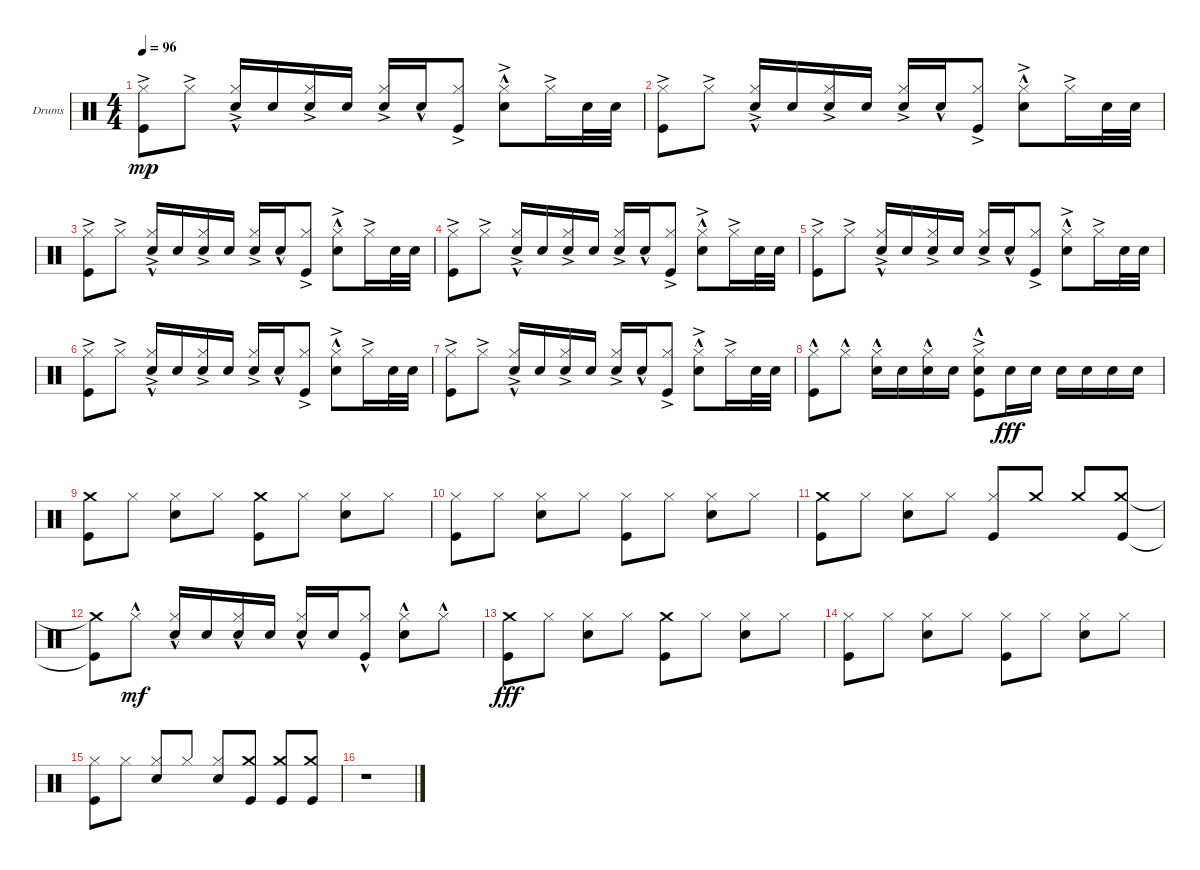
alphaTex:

\defaultSystemsLayout 4
\bracketExtendMode groupsimilarinstruments
\firstSystemTrackNameOrientation horizontal
\otherSystemsTrackNameOrientation horizontal
\track ("Drumkit" "Drums") {instrument percussion}
\staff {score}
\articulation defaults
\ts (4 4)
\tempo 96
\clef neutral
\ks c
("Hi-Hat (closed)"{ac} "Kick (hit)"{ac}).8{dy mp} "Hi-Hat (closed)"{ac}.8 ("Hi-Hat (closed)"{ac} "Snare (hit) 2"{hac}).16 "Snare (hit) 2".16 ("Snare (hit) 2" "Hi-Hat (closed)"{ac}).16 "Snare (hit) 2".16 ("Hi-Hat (closed)"{ac} "Snare (hit) 2").16{beam invert} "Snare (hit) 2"{hac}.16 ("Hi-Hat (closed)"{ac} "Kick (hit)").8 ("Snare (hit) 2"{hac} "Hi-Hat (closed)"{ac}).8 "Hi-Hat (closed)"{ac}.16 "Snare (hit) 2".32 "Snare (hit) 2".32 |
("Hi-Hat (closed)"{ac} "Kick (hit)"{ac}).8 "Hi-Hat (closed)"{ac}.8 ("Hi-Hat (closed)"{ac} "Snare (hit) 2"{hac}).16 "Snare (hit) 2".16 ("Snare (hit) 2" "Hi-Hat (closed)"{ac}).16 "Snare (hit) 2".16 ("Hi-Hat (closed)"{ac} "Snare (hit) 2").16{beam invert} "Snare (hit) 2"{hac}.16 ("Hi-Hat (closed)"{ac} "Kick (hit)").8 ("Snare (hit) 2"{hac} "Hi-Hat (closed)"{ac}).8 "Hi-Hat (closed)"{ac}.16 "Snare (hit) 2".32 "Snare (hit) 2".32 |
("Hi-Hat (closed)"{ac} "Kick (hit)"{ac}).8 "Hi-Hat (closed)"{ac}.8 ("Hi-Hat (closed)"{ac} "Snare (hit) 2"{hac}).16 "Snare (hit) 2".16 ("Snare (hit) 2" "Hi-Hat (closed)"{ac}).16 "Snare (hit) 2".16 ("Hi-Hat (closed)"{ac} "Snare (hit) 2").16{beam invert} "Snare (hit) 2"{hac}.16 ("Hi-Hat (closed)"{ac} "Kick (hit)").8 ("Snare (hit) 2"{hac} "Hi-Hat (closed)"{ac}).8 "Hi-Hat (closed)"{ac}.16 "Snare (hit) 2".32 "Snare (hit) 2".32 |
("Hi-Hat (closed)"{ac} "Kick (hit)"{ac}).8 "Hi-Hat (closed)"{ac}.8 ("Hi-Hat (closed)"{ac} "Snare (hit) 2"{hac}).16 "Snare (hit) 2".16 ("Snare (hit) 2" "Hi-Hat (closed)"{ac}).16 "Snare (hit) 2".16 ("Hi-Hat (closed)"{ac} "Snare (hit) 2").16{beam invert} "Snare (hit) 2"{hac}.16 ("Hi-Hat (closed)"{ac} "Kick (hit)").8 ("Snare (hit) 2"{hac} "Hi-Hat (closed)"{ac}).8 "Hi-Hat (closed)"{ac}.16 "Snare (hit) 2".32 "Snare (hit) 2".32 |
("Hi-Hat (closed)"{ac} "Kick (hit)"{ac}).8 "Hi-Hat (closed)"{ac}.8 ("Hi-Hat (closed)"{ac} "Snare (hit) 2"{hac}).16 "Snare (hit) 2".16 ("Snare (hit) 2" "Hi-Hat (closed)"{ac}).16 "Snare (hit) 2".16 ("Hi-Hat (closed)"{ac} "Snare (hit) 2").16{beam invert} "Snare (hit) 2"{hac}.16 ("Hi-Hat (closed)"{ac} "Kick (hit)").8 ("Snare (hit) 2"{hac} "Hi-Hat (closed)"{ac}).8 "Hi-Hat (closed)"{ac}.16 "Snare (hit) 2".32 "Snare (hit) 2".32 |
("Hi-Hat (closed)"{ac} "Kick (hit)"{ac}).8 "Hi-Hat (closed)"{ac}.8 ("Hi-Hat (closed)"{ac} "Snare (hit) 2"{hac}).16 "Snare (hit) 2".16 ("Snare (hit) 2" "Hi-Hat (closed)"{ac}).16 "Snare (hit) 2".16 ("Hi-Hat (closed)"{ac} "Snare (hit) 2").16{beam invert} "Snare (hit) 2"{hac}.16 ("Hi-Hat (closed)"{ac} "Kick (hit)").8 ("Snare (hit) 2"{hac} "Hi-Hat (closed)"{ac}).8 "Hi-Hat (closed)"{ac}.16 "Snare (hit) 2".32 "Snare (hit) 2".32 |
("Hi-Hat (closed)"{ac} "Kick (hit)"{ac}).8 "Hi-Hat (closed)"{ac}.8 ("Hi-Hat (closed)"{ac} "Snare (hit) 2"{hac}).16 "Snare (hit) 2".16 ("Snare (hit) 2" "Hi-Hat (closed)"{ac}).16 "Snare (hit) 2".16 ("Hi-Hat (closed)"{ac} "Snare (hit) 2").16{beam invert} "Snare (hit) 2"{hac}.16 ("Hi-Hat (closed)"{ac} "Kick (hit)").8 ("Snare (hit) 2"{hac} "Hi-Hat (closed)"{ac}).8 "Hi-Hat (closed)"{ac}.16 "Snare (hit) 2".32 "Snare (hit) 2".32 |
("Kick (hit)"{hac} "Hi-Hat (closed)"{hac}).8 "Hi-Hat (closed)"{hac}.8 ("Hi-Hat (closed)"{hac} "Snare (hit) 2"{hac}).16 "Snare (hit) 2".16 ("Snare (hit) 2" "Hi-Hat (closed)"{hac}).16 "Snare (hit) 2".16 ("Kick (hit)"{ac} "Snare (hit) 2" "Hi-Hat (closed)"{hac}).8 "Snare (hit) 2".16{dy fff} "Snare (hit) 2".16 "Snare (hit) 2".16 "Snare (hit) 2".16 "Snare (hit) 2".16 "Snare (hit) 2".16 |
("Crash medium (hit)" "Kick (hit)").8 "Hi-Hat (closed)".8 ("Hi-Hat (closed)" "Snare (hit) 2").8 "Hi-Hat (closed)".8 ("Crash medium (hit)" "Kick (hit)").8 "Hi-Hat (closed)".8 ("Hi-Hat (closed)" "Snare (hit) 2").8 "Hi-Hat (closed)".8 |
("Kick (hit)" "Hi-Hat (closed)").8 "Hi-Hat (closed)".8 ("Hi-Hat (closed)" "Snare (hit) 2").8 "Hi-Hat (closed)".8 ("Kick (hit)" "Hi-Hat (closed)").8 "Hi-Hat (closed)".8 ("Hi-Hat (closed)" "Snare (hit) 2").8 "Hi-Hat (closed)".8 |
("Kick (hit)" "Crash medium (hit)").8 "Hi-Hat (closed)".8 ("Hi-Hat (closed)" "Snare (hit) 2").8 "Hi-Hat (closed)".8 ("Hi-Hat (closed)" "Kick (hit)").8 "Crash medium (hit)".8 "Crash medium (hit)".8{beam invert} ("Crash medium (hit)" "Kick (hit)").8 |
("Crash medium (hit)"{t} "Kick (hit)"{t}).8 "Hi-Hat (closed)"{hac}.8{dy mf} ("Snare (hit) 2" "Hi-Hat (closed)"{hac}).16 "Snare (hit) 2".16 ("Snare (hit) 2" "Hi-Hat (closed)"{hac}).16 "Snare (hit) 2".16 ("Snare (hit) 2" "Hi-Hat (closed)"{hac}).16{beam invert} "Snare (hit) 2".16 ("Kick (hit)" "Hi-Hat (closed)"{hac}).8 ("Hi-Hat (closed)"{hac} "Snare (hit) 2").8 "Hi-Hat (closed)"{hac}.8 |
("Crash medium (hit)" "Kick (hit)").8{dy fff} "Hi-Hat (closed)".8 ("Hi-Hat (closed)" "Snare (hit) 2").8 "Hi-Hat (closed)".8 ("Crash medium (hit)" "Kick (hit)").8 "Hi-Hat (closed)".8 ("Hi-Hat (closed)" "Snare (hit) 2").8 "Hi-Hat (closed)".8 |
("Kick (hit)" "Hi-Hat (closed)").8 "Hi-Hat (closed)".8 ("Hi-Hat (closed)" "Snare (hit) 2").8 "Hi-Hat (closed)".8 ("Kick (hit)" "Hi-Hat (closed)").8 "Hi-Hat (closed)".8 ("Hi-Hat (closed)" "Snare (hit) 2").8 "Hi-Hat (closed)".8 |
("Kick (hit)" "Hi-Hat (closed)").8 "Hi-Hat (closed)".8 ("Hi-Hat (closed)" "Snare (hit) 2").8 "Hi-Hat (closed)".8 ("Hi-Hat (closed)" "Snare (hit) 2").8{beam invert} ("Crash medium (hit)" "Kick (hit)").8 ("Crash medium (hit)" "Kick (hit)").8{beam invert} ("Crash medium (hit)" "Kick (hit)").8 |
r.1
